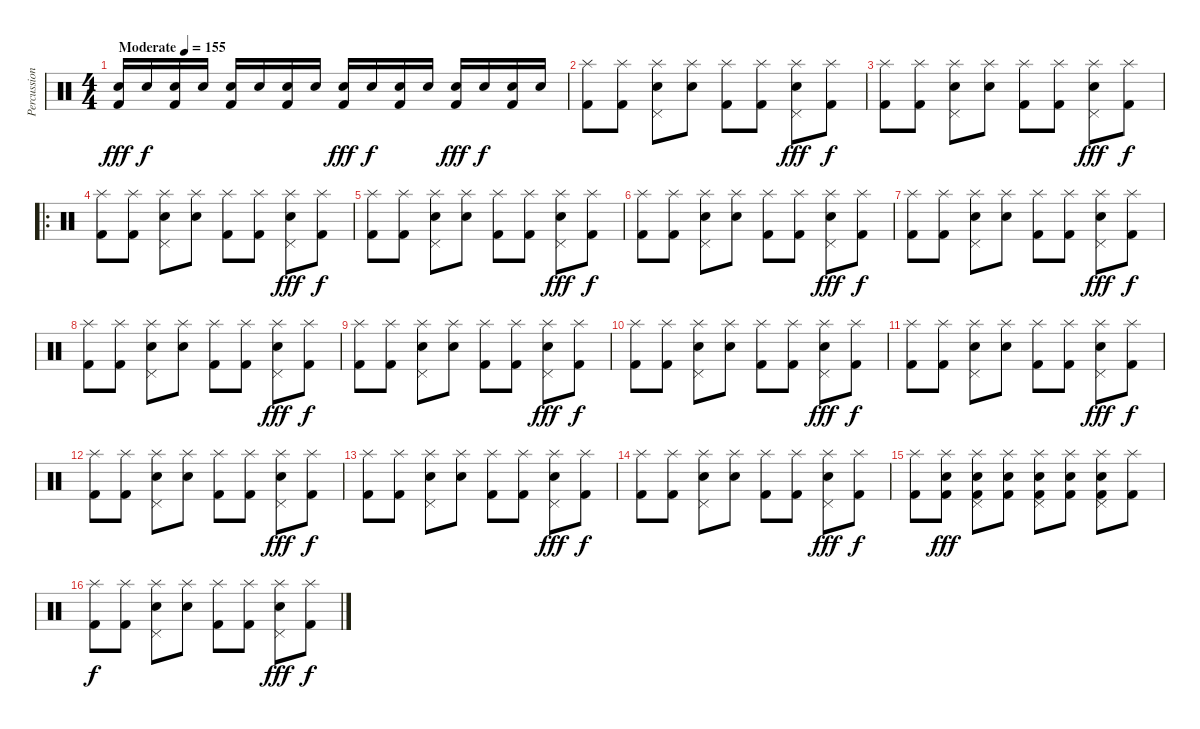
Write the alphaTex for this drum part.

\track ("Percussion" "Percussion") {instrument percussion}
\staff {score}
\articulation defaults
\ts (4 4)
\tempo (155 "Moderate")
\clef neutral
\ks c
("Snare (hit) 2" "Kick (hit) 2").16{dy fff} "Snare (hit) 2".16{dy f} ("Snare (hit) 2" "Kick (hit) 2").16 "Snare (hit) 2".16 ("Snare (hit) 2" "Kick (hit) 2").16 "Snare (hit) 2".16 ("Snare (hit) 2" "Kick (hit) 2").16 "Snare (hit) 2".16 ("Snare (hit) 2" "Kick (hit) 2").16{dy fff} "Snare (hit) 2".16{dy f} ("Snare (hit) 2" "Kick (hit) 2").16 "Snare (hit) 2".16 ("Snare (hit) 2" "Kick (hit) 2").16{dy fff} "Snare (hit) 2".16{dy f} ("Snare (hit) 2" "Kick (hit) 2").16 "Snare (hit) 2".16 |
("Splash (hit)" "Kick (hit) 2").8 ("Splash (hit)" "Kick (hit) 2").8 ("Splash (hit)" "Pedal Hi-Hat (hit)" "Snare (hit) 2").8 ("Splash (hit)" "Snare (hit) 2").8 ("Splash (hit)" "Kick (hit) 2").8 ("Splash (hit)" "Kick (hit) 2").8 ("Splash (hit)" "Pedal Hi-Hat (hit)" "Snare (hit) 2").8{dy fff} ("Splash (hit)" "Kick (hit) 2").8{dy f} |
("Splash (hit)" "Kick (hit) 2").8 ("Splash (hit)" "Kick (hit) 2").8 ("Splash (hit)" "Pedal Hi-Hat (hit)" "Snare (hit) 2").8 ("Splash (hit)" "Snare (hit) 2").8 ("Splash (hit)" "Kick (hit) 2").8 ("Splash (hit)" "Kick (hit) 2").8 ("Splash (hit)" "Pedal Hi-Hat (hit)" "Snare (hit) 2").8{dy fff} ("Splash (hit)" "Kick (hit) 2").8{dy f} |
\ro
("Splash (hit)" "Kick (hit) 2").8 ("Splash (hit)" "Kick (hit) 2").8 ("Splash (hit)" "Pedal Hi-Hat (hit)" "Snare (hit) 2").8 ("Splash (hit)" "Snare (hit) 2").8 ("Splash (hit)" "Kick (hit) 2").8 ("Splash (hit)" "Kick (hit) 2").8 ("Splash (hit)" "Pedal Hi-Hat (hit)" "Snare (hit) 2").8{dy fff} ("Splash (hit)" "Kick (hit) 2").8{dy f} |
("Splash (hit)" "Kick (hit) 2").8 ("Splash (hit)" "Kick (hit) 2").8 ("Splash (hit)" "Pedal Hi-Hat (hit)" "Snare (hit) 2").8 ("Splash (hit)" "Snare (hit) 2").8 ("Splash (hit)" "Kick (hit) 2").8 ("Splash (hit)" "Kick (hit) 2").8 ("Splash (hit)" "Pedal Hi-Hat (hit)" "Snare (hit) 2").8{dy fff} ("Splash (hit)" "Kick (hit) 2").8{dy f} |
("Splash (hit)" "Kick (hit) 2").8 ("Splash (hit)" "Kick (hit) 2").8 ("Splash (hit)" "Pedal Hi-Hat (hit)" "Snare (hit) 2").8 ("Splash (hit)" "Snare (hit) 2").8 ("Splash (hit)" "Kick (hit) 2").8 ("Splash (hit)" "Kick (hit) 2").8 ("Splash (hit)" "Pedal Hi-Hat (hit)" "Snare (hit) 2").8{dy fff} ("Splash (hit)" "Kick (hit) 2").8{dy f} |
("Splash (hit)" "Kick (hit) 2").8 ("Splash (hit)" "Kick (hit) 2").8 ("Splash (hit)" "Pedal Hi-Hat (hit)" "Snare (hit) 2").8 ("Splash (hit)" "Snare (hit) 2").8 ("Splash (hit)" "Kick (hit) 2").8 ("Splash (hit)" "Kick (hit) 2").8 ("Splash (hit)" "Pedal Hi-Hat (hit)" "Snare (hit) 2").8{dy fff} ("Splash (hit)" "Kick (hit) 2").8{dy f} |
("Splash (hit)" "Kick (hit) 2").8 ("Splash (hit)" "Kick (hit) 2").8 ("Splash (hit)" "Pedal Hi-Hat (hit)" "Snare (hit) 2").8 ("Splash (hit)" "Snare (hit) 2").8 ("Splash (hit)" "Kick (hit) 2").8 ("Splash (hit)" "Kick (hit) 2").8 ("Splash (hit)" "Pedal Hi-Hat (hit)" "Snare (hit) 2").8{dy fff} ("Splash (hit)" "Kick (hit) 2").8{dy f} |
("Splash (hit)" "Kick (hit) 2").8 ("Splash (hit)" "Kick (hit) 2").8 ("Splash (hit)" "Pedal Hi-Hat (hit)" "Snare (hit) 2").8 ("Splash (hit)" "Snare (hit) 2").8 ("Splash (hit)" "Kick (hit) 2").8 ("Splash (hit)" "Kick (hit) 2").8 ("Splash (hit)" "Pedal Hi-Hat (hit)" "Snare (hit) 2").8{dy fff} ("Splash (hit)" "Kick (hit) 2").8{dy f} |
("Splash (hit)" "Kick (hit) 2").8 ("Splash (hit)" "Kick (hit) 2").8 ("Splash (hit)" "Pedal Hi-Hat (hit)" "Snare (hit) 2").8 ("Splash (hit)" "Snare (hit) 2").8 ("Splash (hit)" "Kick (hit) 2").8 ("Splash (hit)" "Kick (hit) 2").8 ("Splash (hit)" "Pedal Hi-Hat (hit)" "Snare (hit) 2").8{dy fff} ("Splash (hit)" "Kick (hit) 2").8{dy f} |
("Splash (hit)" "Kick (hit) 2").8 ("Splash (hit)" "Kick (hit) 2").8 ("Splash (hit)" "Pedal Hi-Hat (hit)" "Snare (hit) 2").8 ("Splash (hit)" "Snare (hit) 2").8 ("Splash (hit)" "Kick (hit) 2").8 ("Splash (hit)" "Kick (hit) 2").8 ("Splash (hit)" "Pedal Hi-Hat (hit)" "Snare (hit) 2").8{dy fff} ("Splash (hit)" "Kick (hit) 2").8{dy f} |
("Splash (hit)" "Kick (hit) 2").8 ("Splash (hit)" "Kick (hit) 2").8 ("Splash (hit)" "Pedal Hi-Hat (hit)" "Snare (hit) 2").8 ("Splash (hit)" "Snare (hit) 2").8 ("Splash (hit)" "Kick (hit) 2").8 ("Splash (hit)" "Kick (hit) 2").8 ("Splash (hit)" "Pedal Hi-Hat (hit)" "Snare (hit) 2").8{dy fff} ("Splash (hit)" "Kick (hit) 2").8{dy f} |
("Splash (hit)" "Kick (hit) 2").8 ("Splash (hit)" "Kick (hit) 2").8 ("Splash (hit)" "Pedal Hi-Hat (hit)" "Snare (hit) 2").8 ("Splash (hit)" "Snare (hit) 2").8 ("Splash (hit)" "Kick (hit) 2").8 ("Splash (hit)" "Kick (hit) 2").8 ("Splash (hit)" "Pedal Hi-Hat (hit)" "Snare (hit) 2").8{dy fff} ("Splash (hit)" "Kick (hit) 2").8{dy f} |
("Splash (hit)" "Kick (hit) 2").8 ("Splash (hit)" "Kick (hit) 2").8 ("Splash (hit)" "Pedal Hi-Hat (hit)" "Snare (hit) 2").8 ("Splash (hit)" "Snare (hit) 2").8 ("Splash (hit)" "Kick (hit) 2").8 ("Splash (hit)" "Kick (hit) 2").8 ("Splash (hit)" "Pedal Hi-Hat (hit)" "Snare (hit) 2").8{dy fff} ("Splash (hit)" "Kick (hit) 2").8{dy f} |
("Splash (hit)" "Kick (hit) 2").8 ("Splash (hit)" "Snare (hit) 2" "Kick (hit) 2").8{dy fff} ("Splash (hit)" "Pedal Hi-Hat (hit)" "Snare (hit) 2" "Kick (hit) 2").8 ("Splash (hit)" "Snare (hit) 2" "Kick (hit) 2").8 ("Splash (hit)" "Pedal Hi-Hat (hit)" "Snare (hit) 2" "Kick (hit) 2").8 ("Splash (hit)" "Snare (hit) 2" "Kick (hit) 2").8 ("Splash (hit)" "Pedal Hi-Hat (hit)" "Snare (hit) 2" "Kick (hit) 2").8 ("Splash (hit)" "Kick (hit) 2").8 |
("Splash (hit)" "Kick (hit) 2").8{dy f} ("Splash (hit)" "Kick (hit) 2").8 ("Splash (hit)" "Pedal Hi-Hat (hit)" "Snare (hit) 2").8 ("Splash (hit)" "Snare (hit) 2").8 ("Splash (hit)" "Kick (hit) 2").8 ("Splash (hit)" "Kick (hit) 2").8 ("Splash (hit)" "Pedal Hi-Hat (hit)" "Snare (hit) 2").8{dy fff} ("Splash (hit)" "Kick (hit) 2").8{dy f}
